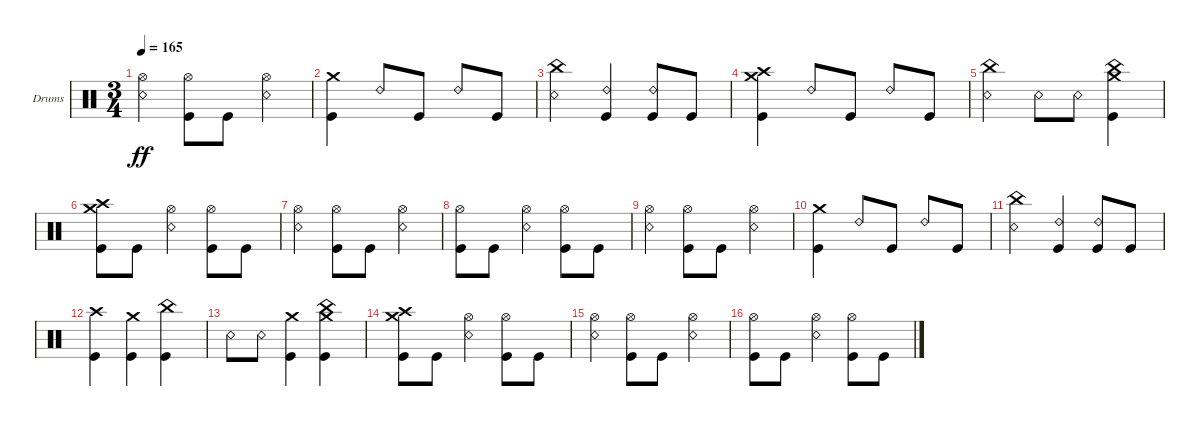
\bracketExtendMode groupsimilarinstruments
\firstSystemTrackNameOrientation horizontal
\otherSystemsTrackNameOrientation horizontal
\track ("Kaleb - Drums" "Drums") {instrument percussion}
\staff {score}
\articulation defaults
\ts (3 4)
\tempo 165
\clef neutral
\ks c
("Hi-Hat (open)" "Snare (rim shot)").4{dy ff} ("Kick (hit)" "Hi-Hat (open)").8 "Kick (hit)".8 ("Hi-Hat (open)" "Snare (rim shot)").4 |
("Kick (hit)" "Crash medium (hit)").4 "Ride (bell) 2".8 "Kick (hit)".8 "Ride (bell) 2".8 "Kick (hit)".8 |
("Snare (rim shot)" "China (hit)").4 ("Ride (bell) 2" "Kick (hit)").4 ("Ride (bell) 2" "Kick (hit)").8 "Kick (hit)".8 |
("Kick (hit)" "Crash medium (hit)" "Crash high (hit)").4 "Ride (bell) 2".8 "Kick (hit)".8 "Ride (bell) 2".8 "Kick (hit)".8 |
("Snare (rim shot)" "China (hit)").4 "Snare (rim shot)".8 "Snare (rim shot)".8 ("Kick (hit)" "Crash medium (hit)" "China (hit)").4 |
("Kick (hit)" "Crash medium (hit)" "Crash high (hit)").8 "Kick (hit)".8 ("Hi-Hat (open)" "Snare (rim shot)").4 ("Kick (hit)" "Hi-Hat (open)").8 "Kick (hit)".8 |
("Hi-Hat (open)" "Snare (rim shot)").4 ("Kick (hit)" "Hi-Hat (open)").8 "Kick (hit)".8 ("Hi-Hat (open)" "Snare (rim shot)").4 |
("Kick (hit)" "Hi-Hat (open)").8 "Kick (hit)".8 ("Hi-Hat (open)" "Snare (rim shot)").4 ("Kick (hit)" "Hi-Hat (open)").8 "Kick (hit)".8 |
("Hi-Hat (open)" "Snare (rim shot)").4 ("Kick (hit)" "Hi-Hat (open)").8 "Kick (hit)".8 ("Hi-Hat (open)" "Snare (rim shot)").4 |
("Kick (hit)" "Crash medium (hit)").4 "Ride (bell) 2".8 "Kick (hit)".8 "Ride (bell) 2".8 "Kick (hit)".8 |
("Snare (rim shot)" "China (hit)").4 ("Ride (bell) 2" "Kick (hit)").4 ("Ride (bell) 2" "Kick (hit)").8 "Kick (hit)".8 |
("Kick (hit)" "Crash high (hit)").4 ("Kick (hit)" "Crash medium (hit)").4 ("Kick (hit)" "China (hit)").4 |
"Snare (rim shot)".8 "Snare (rim shot)".8 ("Kick (hit)" "Crash medium (hit)").4 ("Kick (hit)" "Crash medium (hit)" "China (hit)").4 |
("Kick (hit)" "Crash medium (hit)" "Crash high (hit)").8 "Kick (hit)".8 ("Hi-Hat (open)" "Snare (rim shot)").4 ("Kick (hit)" "Hi-Hat (open)").8 "Kick (hit)".8 |
("Hi-Hat (open)" "Snare (rim shot)").4 ("Kick (hit)" "Hi-Hat (open)").8 "Kick (hit)".8 ("Hi-Hat (open)" "Snare (rim shot)").4 |
("Kick (hit)" "Hi-Hat (open)").8 "Kick (hit)".8 ("Hi-Hat (open)" "Snare (rim shot)").4 ("Kick (hit)" "Hi-Hat (open)").8 "Kick (hit)".8
